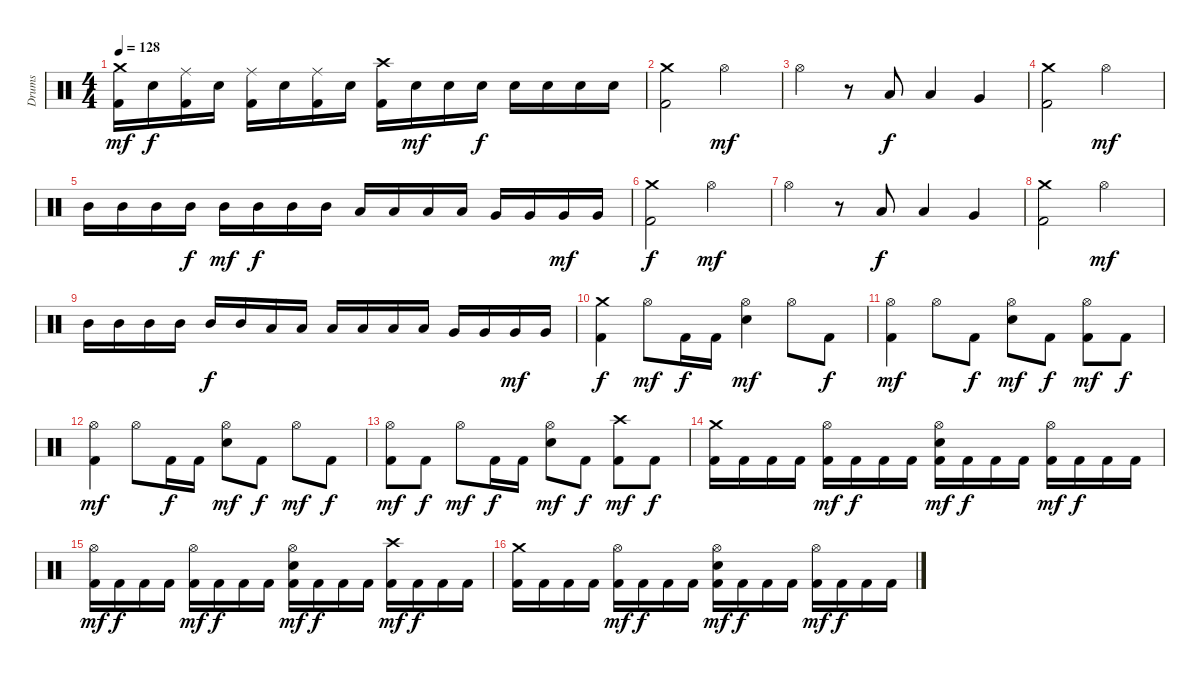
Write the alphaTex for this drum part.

\track ("Drums" "Drums") {instrument percussion}
\staff {score}
\articulation defaults
\ts (4 4)
\tempo 128
\clef neutral
\ks c
("Crash medium (hit)" "Kick (hit) 2").16{dy mf} "Electric Snare (hit)".16{dy f} ("Ride (middle)" "Kick (hit) 2").16 "Electric Snare (hit)".16 ("Ride (middle)" "Kick (hit) 2").16 "Electric Snare (hit)".16 ("Ride (middle)" "Kick (hit) 2").16 "Electric Snare (hit)".16 ("Crash high (hit)" "Kick (hit) 2").16 "Electric Snare (hit)".16{dy mf} "Electric Snare (hit)".16 "Electric Snare (hit)".16{dy f} "Electric Snare (hit)".16 "Electric Snare (hit)".16 "Electric Snare (hit)".16 "Electric Snare (hit)".16 |
("Crash medium (hit)" "Kick (hit) 2").2 "Hi-Hat (open)".2{dy mf} |
"Hi-Hat (open)".4 r.8 "Low Tom (hit)".8{dy f} "Low Tom (hit)".4 "Very Low Tom (hit)".4 |
("Crash medium (hit)" "Kick (hit) 2").2 "Hi-Hat (open)".2{dy mf} |
"Mid Tom (hit)".16 "Mid Tom (hit)".16 "Mid Tom (hit)".16 "Mid Tom (hit)".16{dy f} "Mid Tom (hit)".16{dy mf} "Mid Tom (hit)".16{dy f} "Mid Tom (hit)".16 "Mid Tom (hit)".16 "Low Tom (hit)".16 "Low Tom (hit)".16 "Low Tom (hit)".16 "Low Tom (hit)".16 "Very Low Tom (hit)".16 "Very Low Tom (hit)".16 "Very Low Tom (hit)".16{dy mf} "Very Low Tom (hit)".16 |
("Crash medium (hit)" "Kick (hit) 2").2{dy f} "Hi-Hat (open)".2{dy mf} |
"Hi-Hat (open)".4 r.8 "Low Tom (hit)".8{dy f} "Low Tom (hit)".4 "Very Low Tom (hit)".4 |
("Crash medium (hit)" "Kick (hit) 2").2 "Hi-Hat (open)".2{dy mf} |
"Mid Tom (hit)".16 "Mid Tom (hit)".16 "Mid Tom (hit)".16 "Mid Tom (hit)".16 "Mid Tom (hit)".16{dy f} "Mid Tom (hit)".16 "Low Tom (hit)".16 "Low Tom (hit)".16 "Low Tom (hit)".16 "Low Tom (hit)".16 "Low Tom (hit)".16 "Low Tom (hit)".16 "Very Low Tom (hit)".16 "Very Low Tom (hit)".16 "Very Low Tom (hit)".16{dy mf} "Very Low Tom (hit)".16 |
("Crash medium (hit)" "Kick (hit) 2").4{dy f} "Hi-Hat (open)".8{dy mf} "Kick (hit) 2".16{dy f} "Kick (hit) 2".16 ("Hi-Hat (open)" "Electric Snare (hit)").4{dy mf} "Hi-Hat (open)".8 "Kick (hit) 2".8{dy f} |
("Hi-Hat (open)" "Kick (hit) 2").4{dy mf} "Hi-Hat (open)".8 "Kick (hit) 2".8{dy f} ("Hi-Hat (open)" "Electric Snare (hit)").8{dy mf} "Kick (hit) 2".8{dy f} ("Hi-Hat (open)" "Kick (hit) 2").8{dy mf} "Kick (hit) 2".8{dy f} |
("Hi-Hat (open)" "Kick (hit) 2").4{dy mf} "Hi-Hat (open)".8 "Kick (hit) 2".16{dy f} "Kick (hit) 2".16 ("Hi-Hat (open)" "Electric Snare (hit)").8{dy mf} "Kick (hit) 2".8{dy f} "Hi-Hat (open)".8{dy mf} "Kick (hit) 2".8{dy f} |
("Hi-Hat (open)" "Kick (hit) 2").8{dy mf} "Kick (hit) 2".8{dy f} "Hi-Hat (open)".8{dy mf} "Kick (hit) 2".16{dy f} "Kick (hit) 2".16 ("Hi-Hat (open)" "Electric Snare (hit)").8{dy mf} "Kick (hit) 2".8{dy f} ("Crash high (hit)" "Kick (hit) 2").8{dy mf} "Kick (hit) 2".8{dy f} |
("Crash medium (hit)" "Kick (hit) 2").16 "Kick (hit) 2".16 "Kick (hit) 2".16 "Kick (hit) 2".16 ("Hi-Hat (open)" "Kick (hit) 2").16{dy mf} "Kick (hit) 2".16{dy f} "Kick (hit) 2".16 "Kick (hit) 2".16 ("Hi-Hat (open)" "Electric Snare (hit)" "Kick (hit) 2").16{dy mf} "Kick (hit) 2".16{dy f} "Kick (hit) 2".16 "Kick (hit) 2".16 ("Hi-Hat (open)" "Kick (hit) 2").16{dy mf} "Kick (hit) 2".16{dy f} "Kick (hit) 2".16 "Kick (hit) 2".16 |
("Hi-Hat (open)" "Kick (hit) 2").16{dy mf} "Kick (hit) 2".16{dy f} "Kick (hit) 2".16 "Kick (hit) 2".16 ("Hi-Hat (open)" "Kick (hit) 2").16{dy mf} "Kick (hit) 2".16{dy f} "Kick (hit) 2".16 "Kick (hit) 2".16 ("Hi-Hat (open)" "Electric Snare (hit)" "Kick (hit) 2").16{dy mf} "Kick (hit) 2".16{dy f} "Kick (hit) 2".16 "Kick (hit) 2".16 ("Crash high (hit)" "Kick (hit) 2").16{dy mf} "Kick (hit) 2".16{dy f} "Kick (hit) 2".16 "Kick (hit) 2".16 |
("Crash medium (hit)" "Kick (hit) 2").16 "Kick (hit) 2".16 "Kick (hit) 2".16 "Kick (hit) 2".16 ("Hi-Hat (open)" "Kick (hit) 2").16{dy mf} "Kick (hit) 2".16{dy f} "Kick (hit) 2".16 "Kick (hit) 2".16 ("Hi-Hat (open)" "Electric Snare (hit)" "Kick (hit) 2").16{dy mf} "Kick (hit) 2".16{dy f} "Kick (hit) 2".16 "Kick (hit) 2".16 ("Hi-Hat (open)" "Kick (hit) 2").16{dy mf} "Kick (hit) 2".16{dy f} "Kick (hit) 2".16 "Kick (hit) 2".16
